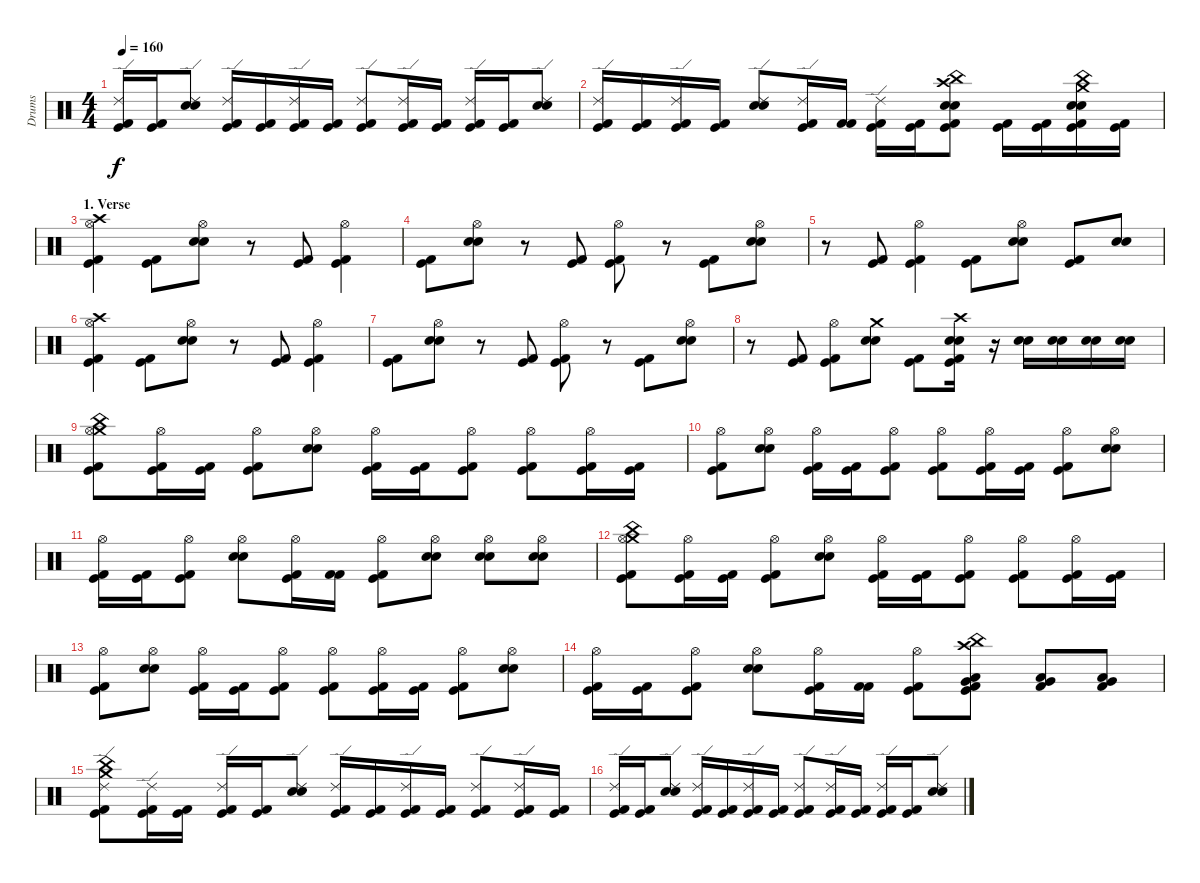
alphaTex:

\track ("Drums" "Drums") {instrument percussion}
\staff {score}
\articulation defaults
\ts (4 4)
\tempo 160
\clef neutral
\ks c
("Ride (edge) 2" "Kick (hit) 2" "Kick (hit)").16{dy f} ("Kick (hit)" "Kick (hit) 2").16 ("Ride (edge) 2" "Electric Snare (hit)" "Snare (hit) 2").8 ("Ride (edge) 2" "Kick (hit) 2" "Kick (hit)").16 ("Kick (hit) 2" "Kick (hit)").16 ("Ride (edge) 2" "Kick (hit) 2" "Kick (hit)").16 ("Kick (hit) 2" "Kick (hit)").16 ("Ride (edge) 2" "Kick (hit) 2" "Kick (hit)").8 ("Ride (edge) 2" "Kick (hit) 2" "Kick (hit)").16 ("Kick (hit)" "Kick (hit) 2").16 ("Ride (edge) 2" "Kick (hit) 2" "Kick (hit)").16 ("Kick (hit) 2" "Kick (hit)").16 ("Ride (edge) 2" "Electric Snare (hit)" "Snare (hit) 2").8 |
("Ride (edge) 2" "Kick (hit) 2" "Kick (hit)").16 ("Kick (hit) 2" "Kick (hit)").16 ("Ride (edge) 2" "Kick (hit)" "Kick (hit) 2").16 ("Kick (hit)" "Kick (hit) 2").16 ("Ride (edge) 2" "Electric Snare (hit)" "Snare (hit) 2").8 ("Ride (edge) 2" "Kick (hit)" "Kick (hit) 2").16 ("Kick (hit) 2" "Kick (hit) 2").16 ("Ride (edge) 2" "Kick (hit) 2" "Kick (hit)").16 ("Kick (hit) 2" "Kick (hit)").16 ("China (hit)" "Crash high (hit)" "Snare (hit) 2" "Electric Snare (hit)" "Kick (hit) 2" "Kick (hit)").8 ("Kick (hit) 2" "Kick (hit)").16 ("Kick (hit) 2" "Kick (hit)").16 ("China (hit)" "Crash medium (hit)" "Electric Snare (hit)" "Snare (hit) 2" "Kick (hit) 2" "Kick (hit)").16 ("Kick (hit) 2" "Kick (hit)").16 |
\section ("" "1. Verse")
("Crash high (hit)" "Hi-Hat (open)" "Kick (hit) 2" "Kick (hit)").4 ("Kick (hit) 2" "Kick (hit)").8 ("Hi-Hat (open)" "Snare (hit) 2" "Electric Snare (hit)").8 r.8 ("Kick (hit) 2" "Kick (hit)").8 ("Hi-Hat (open)" "Kick (hit) 2" "Kick (hit)").4 |
("Kick (hit) 2" "Kick (hit)").8 ("Hi-Hat (open)" "Electric Snare (hit)" "Snare (hit) 2").8 r.8 ("Kick (hit) 2" "Kick (hit)").8 ("Hi-Hat (open)" "Kick (hit) 2" "Kick (hit)").8 r.8 ("Kick (hit)" "Kick (hit) 2").8 ("Hi-Hat (open)" "Electric Snare (hit)" "Snare (hit) 2").8 |
r.8 ("Kick (hit) 2" "Kick (hit)").8 ("Hi-Hat (open)" "Kick (hit) 2" "Kick (hit)").4 ("Kick (hit) 2" "Kick (hit)").8 ("Hi-Hat (open)" "Electric Snare (hit)" "Snare (hit) 2").8 ("Kick (hit) 2" "Kick (hit)").8 ("Electric Snare (hit)" "Snare (hit) 2").8 |
("Crash high (hit)" "Hi-Hat (open)" "Kick (hit) 2" "Kick (hit)").4 ("Kick (hit) 2" "Kick (hit)").8 ("Hi-Hat (open)" "Snare (hit) 2" "Electric Snare (hit)").8 r.8 ("Kick (hit) 2" "Kick (hit)").8 ("Hi-Hat (open)" "Kick (hit) 2" "Kick (hit)").4 |
("Kick (hit) 2" "Kick (hit)").8 ("Hi-Hat (open)" "Electric Snare (hit)" "Snare (hit) 2").8 r.8 ("Kick (hit) 2" "Kick (hit)").8 ("Hi-Hat (open)" "Kick (hit) 2" "Kick (hit)").8 r.8 ("Kick (hit)" "Kick (hit) 2").8 ("Hi-Hat (open)" "Electric Snare (hit)" "Snare (hit) 2").8 |
r.8 ("Kick (hit) 2" "Kick (hit)").8 ("Hi-Hat (open)" "Kick (hit) 2" "Kick (hit)").8 ("Crash medium (hit)" "Electric Snare (hit)" "Snare (hit) 2").8 ("Kick (hit) 2" "Kick (hit)").8 ("Crash high (hit)" "Electric Snare (hit)" "Snare (hit) 2" "Kick (hit) 2" "Kick (hit)").16 r.16 ("Electric Snare (hit)" "Snare (hit) 2").16 ("Electric Snare (hit)" "Snare (hit) 2").16 ("Electric Snare (hit)" "Snare (hit) 2").16 ("Snare (hit) 2" "Electric Snare (hit)").16 |
("Crash medium (hit)" "Hi-Hat (open)" "China (hit)" "Kick (hit) 2" "Kick (hit)").8 ("Hi-Hat (open)" "Kick (hit) 2" "Kick (hit)").16 ("Kick (hit) 2" "Kick (hit)").16 ("Hi-Hat (open)" "Kick (hit) 2" "Kick (hit)").8 ("Hi-Hat (open)" "Electric Snare (hit)" "Snare (hit) 2").8 ("Hi-Hat (open)" "Kick (hit) 2" "Kick (hit)").16 ("Kick (hit) 2" "Kick (hit)").16 ("Hi-Hat (open)" "Kick (hit) 2" "Kick (hit)").8 ("Hi-Hat (open)" "Kick (hit) 2" "Kick (hit)").8 ("Hi-Hat (open)" "Kick (hit) 2" "Kick (hit)").16 ("Kick (hit) 2" "Kick (hit)").16 |
("Hi-Hat (open)" "Kick (hit)" "Kick (hit) 2").8 ("Hi-Hat (open)" "Electric Snare (hit)" "Snare (hit) 2").8 ("Hi-Hat (open)" "Kick (hit) 2" "Kick (hit)").16 ("Kick (hit) 2" "Kick (hit)").16 ("Hi-Hat (open)" "Kick (hit) 2" "Kick (hit)").8 ("Hi-Hat (open)" "Kick (hit) 2" "Kick (hit)").8 ("Hi-Hat (open)" "Kick (hit) 2" "Kick (hit)").16 ("Kick (hit)" "Kick (hit) 2").16 ("Hi-Hat (open)" "Kick (hit) 2" "Kick (hit)").8 ("Hi-Hat (open)" "Electric Snare (hit)" "Snare (hit) 2").8 |
("Hi-Hat (open)" "Kick (hit) 2" "Kick (hit)").16 ("Kick (hit) 2" "Kick (hit)").16 ("Hi-Hat (open)" "Kick (hit)" "Kick (hit) 2").8 ("Hi-Hat (open)" "Electric Snare (hit)" "Snare (hit) 2").8 ("Hi-Hat (open)" "Kick (hit)" "Kick (hit) 2").16 ("Kick (hit) 2" "Kick (hit) 2").16 ("Hi-Hat (open)" "Kick (hit) 2" "Kick (hit)").8 ("Hi-Hat (open)" "Electric Snare (hit)" "Snare (hit) 2").8 ("Hi-Hat (open)" "Electric Snare (hit)" "Snare (hit) 2").8 ("Hi-Hat (open)" "Electric Snare (hit)" "Snare (hit) 2").8 |
("Crash medium (hit)" "Hi-Hat (open)" "China (hit)" "Kick (hit) 2" "Kick (hit)").8 ("Hi-Hat (open)" "Kick (hit) 2" "Kick (hit)").16 ("Kick (hit) 2" "Kick (hit)").16 ("Hi-Hat (open)" "Kick (hit) 2" "Kick (hit)").8 ("Hi-Hat (open)" "Electric Snare (hit)" "Snare (hit) 2").8 ("Hi-Hat (open)" "Kick (hit) 2" "Kick (hit)").16 ("Kick (hit) 2" "Kick (hit)").16 ("Hi-Hat (open)" "Kick (hit) 2" "Kick (hit)").8 ("Hi-Hat (open)" "Kick (hit) 2" "Kick (hit)").8 ("Hi-Hat (open)" "Kick (hit) 2" "Kick (hit)").16 ("Kick (hit) 2" "Kick (hit)").16 |
("Hi-Hat (open)" "Kick (hit)" "Kick (hit) 2").8 ("Hi-Hat (open)" "Electric Snare (hit)" "Snare (hit) 2").8 ("Hi-Hat (open)" "Kick (hit) 2" "Kick (hit)").16 ("Kick (hit) 2" "Kick (hit)").16 ("Hi-Hat (open)" "Kick (hit) 2" "Kick (hit)").8 ("Hi-Hat (open)" "Kick (hit) 2" "Kick (hit)").8 ("Hi-Hat (open)" "Kick (hit) 2" "Kick (hit)").16 ("Kick (hit)" "Kick (hit) 2").16 ("Hi-Hat (open)" "Kick (hit) 2" "Kick (hit)").8 ("Hi-Hat (open)" "Electric Snare (hit)" "Snare (hit) 2").8 |
("Hi-Hat (open)" "Kick (hit) 2" "Kick (hit)").16 ("Kick (hit) 2" "Kick (hit)").16 ("Hi-Hat (open)" "Kick (hit)" "Kick (hit) 2").8 ("Hi-Hat (open)" "Electric Snare (hit)" "Snare (hit) 2").8 ("Hi-Hat (open)" "Kick (hit)" "Kick (hit) 2").16 ("Kick (hit) 2" "Kick (hit) 2").16 ("Hi-Hat (open)" "Kick (hit) 2" "Kick (hit)").8 ("China (hit)" "Crash high (hit)" "Very Low Tom (hit)" "Low Tom (hit)" "Kick (hit) 2" "Kick (hit)").8 ("Very Low Tom (hit)" "Low Tom (hit)" "Kick (hit) 2").8 ("Very Low Tom (hit)" "Low Tom (hit)" "Kick (hit) 2").8 |
("Crash medium (hit)" "Ride (edge) 2" "China (hit)" "Kick (hit) 2" "Kick (hit)").8 ("Ride (edge) 2" "Kick (hit) 2" "Kick (hit)").16 ("Kick (hit) 2" "Kick (hit)").16 ("Ride (edge) 2" "Kick (hit) 2" "Kick (hit)").16 ("Kick (hit) 2" "Kick (hit)").16 ("Ride (edge) 2" "Electric Snare (hit)" "Snare (hit) 2").8 ("Ride (edge) 2" "Kick (hit) 2" "Kick (hit)").16 ("Kick (hit) 2" "Kick (hit)").16 ("Ride (edge) 2" "Kick (hit) 2" "Kick (hit)").16 ("Kick (hit) 2" "Kick (hit)").16 ("Ride (edge) 2" "Kick (hit) 2" "Kick (hit)").8 ("Ride (edge) 2" "Kick (hit) 2" "Kick (hit)").16 ("Kick (hit) 2" "Kick (hit)").16 |
("Ride (edge) 2" "Kick (hit) 2" "Kick (hit)").16 ("Kick (hit)" "Kick (hit) 2").16 ("Ride (edge) 2" "Electric Snare (hit)" "Snare (hit) 2").8 ("Ride (edge) 2" "Kick (hit) 2" "Kick (hit)").16 ("Kick (hit) 2" "Kick (hit)").16 ("Ride (edge) 2" "Kick (hit) 2" "Kick (hit)").16 ("Kick (hit) 2" "Kick (hit)").16 ("Ride (edge) 2" "Kick (hit) 2" "Kick (hit)").8 ("Ride (edge) 2" "Kick (hit) 2" "Kick (hit)").16 ("Kick (hit)" "Kick (hit) 2").16 ("Ride (edge) 2" "Kick (hit)" "Kick (hit) 2").16 ("Kick (hit) 2" "Kick (hit)").16 ("Ride (edge) 2" "Electric Snare (hit)" "Snare (hit) 2").8
